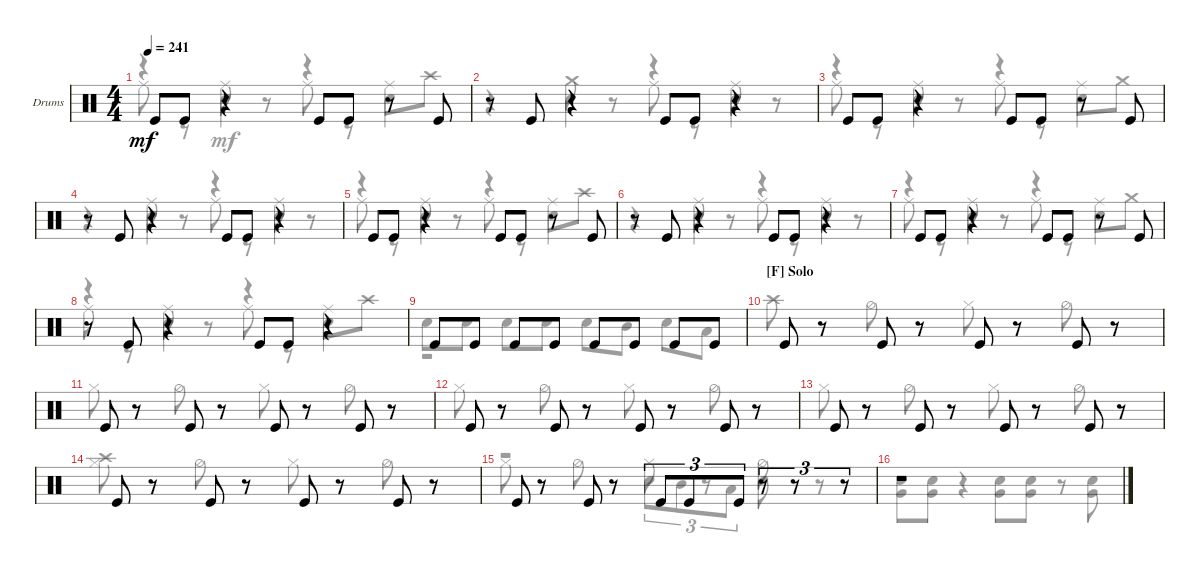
\defaultSystemsLayout 4
\bracketExtendMode groupsimilarinstruments
\firstSystemTrackNameOrientation horizontal
\otherSystemsTrackNameOrientation horizontal
\track ("Drumkit" "Drums") {instrument percussion}
\staff {score}
\articulation defaults
\voice
\ts (4 4)
\tempo 241
\clef neutral
\ks c "Kick (hit)".8{dy mf} "Kick (hit)".8
r.4 "Kick (hit)".8 "Kick (hit)".8 r.8 "Kick (hit)".8 |
r.8 "Kick (hit)".8 r.4 "Kick (hit)".8 "Kick (hit)".8 r.4 |
"Kick (hit)".8 "Kick (hit)".8 r.4 "Kick (hit)".8 "Kick (hit)".8 r.8 "Kick (hit)".8 |
r.8 "Kick (hit)".8 r.4 "Kick (hit)".8 "Kick (hit)".8 r.4 |
"Kick (hit)".8 "Kick (hit)".8 r.4 "Kick (hit)".8 "Kick (hit)".8 r.8 "Kick (hit)".8 |
r.8 "Kick (hit)".8 r.4 "Kick (hit)".8 "Kick (hit)".8 r.4 |
"Kick (hit)".8 "Kick (hit)".8 r.4 "Kick (hit)".8 "Kick (hit)".8 r.8 "Kick (hit)".8 |
r.8 "Kick (hit)".8 r.4 "Kick (hit)".8 "Kick (hit)".8 r.4 |
"Kick (hit)".8 "Kick (hit)".8 "Kick (hit)".8 "Kick (hit)".8 "Kick (hit)".8 "Kick (hit)".8 "Kick (hit)".8 "Kick (hit)".8 |
\section ("F" "Solo")
"Kick (hit)".8 r.8 "Kick (hit)".8 r.8 "Kick (hit)".8 r.8 "Kick (hit)".8 r.8 |
"Kick (hit)".8 r.8 "Kick (hit)".8 r.8 "Kick (hit)".8 r.8 "Kick (hit)".8 r.8 |
"Kick (hit)".8 r.8 "Kick (hit)".8 r.8 "Kick (hit)".8 r.8 "Kick (hit)".8 r.8 |
"Kick (hit)".8 r.8 "Kick (hit)".8 r.8 "Kick (hit)".8 r.8 "Kick (hit)".8 r.8 |
"Kick (hit)".8 r.8 "Kick (hit)".8 r.8 "Kick (hit)".8 r.8 "Kick (hit)".8 r.8 |
"Kick (hit)".8 r.8 "Kick (hit)".8 r.8 "Kick (hit)".8{tu (3 2)} "Kick (hit)".8{tu (3 2)} "Kick (hit)".8{tu (3 2)} r.8{tu (3 2)} r.8{tu (3 2)} r.8{tu (3 2)} |
r.1
\voice
\clef neutral
\ottava regular
\simile none
\ks c
r.4{dy mf} "Snare (hit) 2".4 r.4 "Snare (hit) 2".4 |
r.4 "Snare (hit) 2".4 r.4 "Snare (hit) 2".4 |
r.4 "Snare (hit) 2".4 r.4 "Snare (hit) 2".4 |
r.4 "Snare (hit) 2".4 r.4 "Snare (hit) 2".4 |
r.4 "Snare (hit) 2".4 r.4 "Snare (hit) 2".4 |
r.4 "Snare (hit) 2".4 r.4 "Snare (hit) 2".4 |
r.4 "Snare (hit) 2".4 r.4 "Snare (hit) 2".4 |
r.4 "Snare (hit) 2".4 r.4 "Snare (hit) 2".4 |
"Snare (hit) 2".8 "Snare (hit) 2".8 "Snare (hit) 2".8 "Snare (hit) 2".8 "Snare (hit) 2".8 "Mid Tom (hit)".8 "Snare (hit) 2".8 "Low Tom (hit)".8 |
|
|
|
|
|
r.2 "Snare (hit) 2".8{tu (3 2)} "Mid Tom (hit)".8{tu (3 2)} "Low Tom (hit)".8{tu (3 2)} "Snare (hit) 2".8 r.8 |
("Snare (hit) 2" "Very Low Tom (hit)").8 ("Snare (hit) 2" "Very Low Tom (hit)").8 r.4 ("Snare (hit) 2" "Very Low Tom (hit)").8 ("Snare (hit) 2" "Very Low Tom (hit)").8 r.8 ("Snare (hit) 2" "Very Low Tom (hit)").8
\voice
\clef neutral
\ottava regular
\simile none
\ks c "Ride (middle)".8{dy mf}
r.8 "Ride (middle)".8 r.8 "Ride (middle)".8 r.8 "Ride (middle)".8 "Crash high (hit)".8 |
r.4 "Crash medium (hit)".8 r.8 "Ride (middle)".8 r.8 "Ride (middle)".8 r.8 |
"Ride (middle)".8 r.8 "Ride (middle)".8 r.8 "Ride (middle)".8 r.8 "Ride (middle)".8 "Crash medium (hit)".8 |
r.4 "Ride (middle)".8 r.8 "Ride (middle)".8 r.8 "Ride (middle)".8 r.8 |
"Ride (middle)".8 r.8 "Ride (middle)".8 r.8 "Ride (middle)".8 r.8 "Ride (middle)".8 "Crash high (hit)".8 |
r.4 "Ride (middle)".8 r.8 "Ride (middle)".8 r.8 "Ride (middle)".8 r.8 |
"Ride (middle)".8 r.8 "Ride (middle)".8 r.8 "Ride (middle)".8 r.8 "Ride (middle)".8 "Crash medium (hit)".8 |
"Ride (middle)".8 r.8 "Ride (middle)".8 r.8 "Ride (middle)".8 r.8 "Ride (middle)".8 "Crash high (hit)".8 |
r.1 |
"Crash high (hit)".8 r.8 "Hi-Hat (half)".8 r.8 "Hi-Hat (closed)".8 r.8 "Hi-Hat (half)".8 r.8 |
"Hi-Hat (closed)".8 r.8 "Hi-Hat (half)".8 r.8 "Hi-Hat (closed)".8 r.8 "Hi-Hat (half)".8 r.8 |
"Hi-Hat (closed)".8 r.8 "Hi-Hat (half)".8 r.8 "Hi-Hat (closed)".8 r.8 "Hi-Hat (half)".8 r.8 |
"Hi-Hat (closed)".8 r.8 "Hi-Hat (half)".8 r.8 "Hi-Hat (closed)".8 r.8 "Hi-Hat (half)".8 r.8 |
("Hi-Hat (closed)" "Crash high (hit)").8 r.8 "Hi-Hat (half)".8 r.8 "Hi-Hat (closed)".8 r.8 "Hi-Hat (half)".8 r.8 |
"Hi-Hat (closed)".8 r.8 "Hi-Hat (half)".8 r.8 "Hi-Hat (closed)".8 r.8 "Hi-Hat (half)".8 r.8 |
